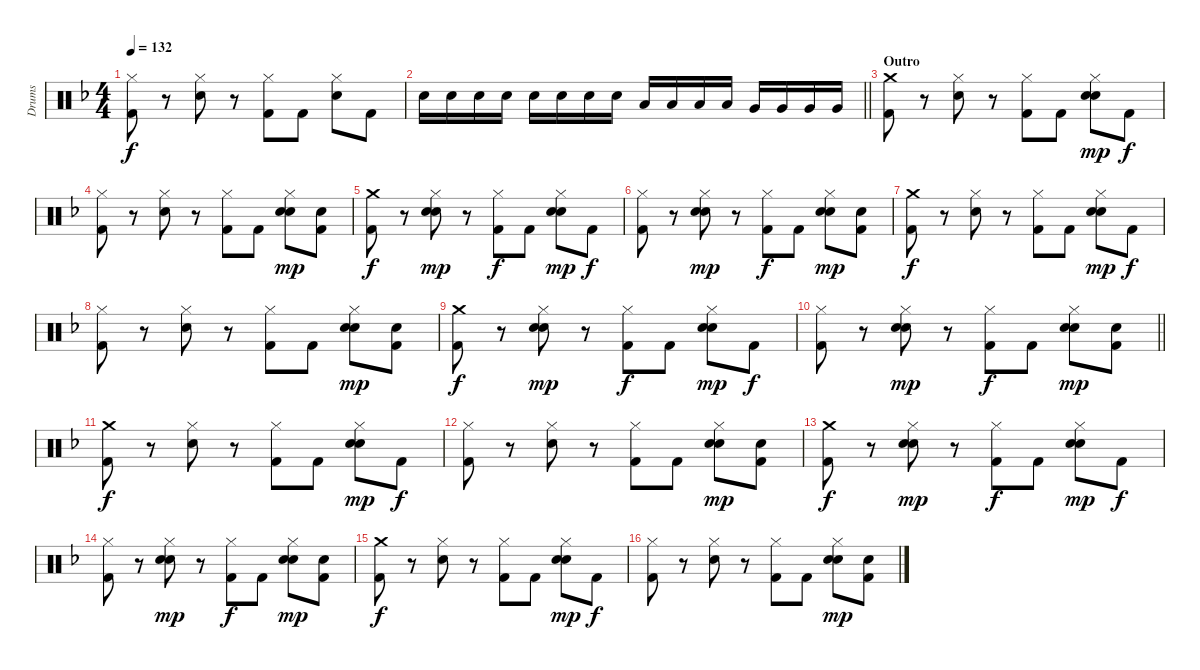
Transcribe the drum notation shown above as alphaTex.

\track ("Drums" "Drums") {instrument percussion}
\staff {score}
\articulation defaults
\ts (4 4)
\tempo 132
\clef neutral
\ks f
("Hi-Hat (closed)" "Kick (hit) 2").8{dy f} r.8 ("Hi-Hat (closed)" "Snare (hit) 2").8 r.8 ("Hi-Hat (closed)" "Kick (hit) 2").8 "Kick (hit) 2".8 ("Hi-Hat (closed)" "Snare (hit) 2").8 "Kick (hit) 2".8 |
\barLineRight lightlight "Snare (hit) 2".16 "Snare (hit) 2".16 "Snare (hit) 2".16 "Snare (hit) 2".16 "Snare (hit) 2".16 "Snare (hit) 2".16 "Snare (hit) 2".16 "Snare (hit) 2".16 "Low Tom (hit)".16 "Low Tom (hit)".16 "Low Tom (hit)".16 "Low Tom (hit)".16 "Very Low Tom (hit)".16 "Very Low Tom (hit)".16 "Very Low Tom (hit)".16 "Very Low Tom (hit)".16
|
\section ("" "Outro")
("Crash medium (hit)" "Kick (hit) 2").8 r.8 ("Hi-Hat (closed)" "Snare (hit) 2").8 r.8 ("Hi-Hat (closed)" "Kick (hit) 2").8 "Kick (hit) 2".8 ("Hi-Hat (closed)" "Hand Clap (hit)" "Snare (hit) 2").8{dy mp} "Kick (hit) 2".8{dy f} |
("Hi-Hat (closed)" "Kick (hit) 2").8 r.8 ("Hi-Hat (closed)" "Snare (hit) 2").8 r.8 ("Hi-Hat (closed)" "Kick (hit) 2").8 "Kick (hit) 2".8 ("Hi-Hat (closed)" "Hand Clap (hit)" "Snare (hit) 2").8{dy mp} ("Hand Clap (hit)" "Kick (hit) 2").8 |
("Crash medium (hit)" "Kick (hit) 2").8{dy f} r.8 ("Hi-Hat (closed)" "Hand Clap (hit)" "Snare (hit) 2").8{dy mp} r.8 ("Hi-Hat (closed)" "Kick (hit) 2").8{dy f} "Kick (hit) 2".8 ("Hi-Hat (closed)" "Hand Clap (hit)" "Snare (hit) 2").8{dy mp} "Kick (hit) 2".8{dy f} |
("Hi-Hat (closed)" "Kick (hit) 2").8 r.8 ("Hi-Hat (closed)" "Hand Clap (hit)" "Snare (hit) 2").8{dy mp} r.8 ("Hi-Hat (closed)" "Kick (hit) 2").8{dy f} "Kick (hit) 2".8 ("Hi-Hat (closed)" "Hand Clap (hit)" "Snare (hit) 2").8{dy mp} ("Hand Clap (hit)" "Kick (hit) 2").8 |
("Crash medium (hit)" "Kick (hit) 2").8{dy f} r.8 ("Hi-Hat (closed)" "Snare (hit) 2").8 r.8 ("Hi-Hat (closed)" "Kick (hit) 2").8 "Kick (hit) 2".8 ("Hi-Hat (closed)" "Hand Clap (hit)" "Snare (hit) 2").8{dy mp} "Kick (hit) 2".8{dy f} |
("Hi-Hat (closed)" "Kick (hit) 2").8 r.8 ("Hi-Hat (closed)" "Snare (hit) 2").8 r.8 ("Hi-Hat (closed)" "Kick (hit) 2").8 "Kick (hit) 2".8 ("Hi-Hat (closed)" "Hand Clap (hit)" "Snare (hit) 2").8{dy mp} ("Hand Clap (hit)" "Kick (hit) 2").8 |
("Crash medium (hit)" "Kick (hit) 2").8{dy f} r.8 ("Hi-Hat (closed)" "Hand Clap (hit)" "Snare (hit) 2").8{dy mp} r.8 ("Hi-Hat (closed)" "Kick (hit) 2").8{dy f} "Kick (hit) 2".8 ("Hi-Hat (closed)" "Hand Clap (hit)" "Snare (hit) 2").8{dy mp} "Kick (hit) 2".8{dy f} |
\barLineRight lightlight
("Hi-Hat (closed)" "Kick (hit) 2").8 r.8 ("Hi-Hat (closed)" "Hand Clap (hit)" "Snare (hit) 2").8{dy mp} r.8 ("Hi-Hat (closed)" "Kick (hit) 2").8{dy f} "Kick (hit) 2".8 ("Hi-Hat (closed)" "Hand Clap (hit)" "Snare (hit) 2").8{dy mp} ("Hand Clap (hit)" "Kick (hit) 2").8 |
("Crash medium (hit)" "Kick (hit) 2").8{dy f} r.8 ("Hi-Hat (closed)" "Snare (hit) 2").8 r.8 ("Hi-Hat (closed)" "Kick (hit) 2").8 "Kick (hit) 2".8 ("Hi-Hat (closed)" "Hand Clap (hit)" "Snare (hit) 2").8{dy mp} "Kick (hit) 2".8{dy f} |
("Hi-Hat (closed)" "Kick (hit) 2").8 r.8 ("Hi-Hat (closed)" "Snare (hit) 2").8 r.8 ("Hi-Hat (closed)" "Kick (hit) 2").8 "Kick (hit) 2".8 ("Hi-Hat (closed)" "Hand Clap (hit)" "Snare (hit) 2").8{dy mp} ("Hand Clap (hit)" "Kick (hit) 2").8 |
("Crash medium (hit)" "Kick (hit) 2").8{dy f} r.8 ("Hi-Hat (closed)" "Hand Clap (hit)" "Snare (hit) 2").8{dy mp} r.8 ("Hi-Hat (closed)" "Kick (hit) 2").8{dy f} "Kick (hit) 2".8 ("Hi-Hat (closed)" "Hand Clap (hit)" "Snare (hit) 2").8{dy mp} "Kick (hit) 2".8{dy f} |
("Hi-Hat (closed)" "Kick (hit) 2").8 r.8 ("Hi-Hat (closed)" "Hand Clap (hit)" "Snare (hit) 2").8{dy mp} r.8 ("Hi-Hat (closed)" "Kick (hit) 2").8{dy f} "Kick (hit) 2".8 ("Hi-Hat (closed)" "Hand Clap (hit)" "Snare (hit) 2").8{dy mp} ("Hand Clap (hit)" "Kick (hit) 2").8 |
("Crash medium (hit)" "Kick (hit) 2").8{dy f} r.8 ("Hi-Hat (closed)" "Snare (hit) 2").8 r.8 ("Hi-Hat (closed)" "Kick (hit) 2").8 "Kick (hit) 2".8 ("Hi-Hat (closed)" "Hand Clap (hit)" "Snare (hit) 2").8{dy mp} "Kick (hit) 2".8{dy f} |
("Hi-Hat (closed)" "Kick (hit) 2").8 r.8 ("Hi-Hat (closed)" "Snare (hit) 2").8 r.8 ("Hi-Hat (closed)" "Kick (hit) 2").8 "Kick (hit) 2".8 ("Hi-Hat (closed)" "Hand Clap (hit)" "Snare (hit) 2").8{dy mp} ("Hand Clap (hit)" "Kick (hit) 2").8
